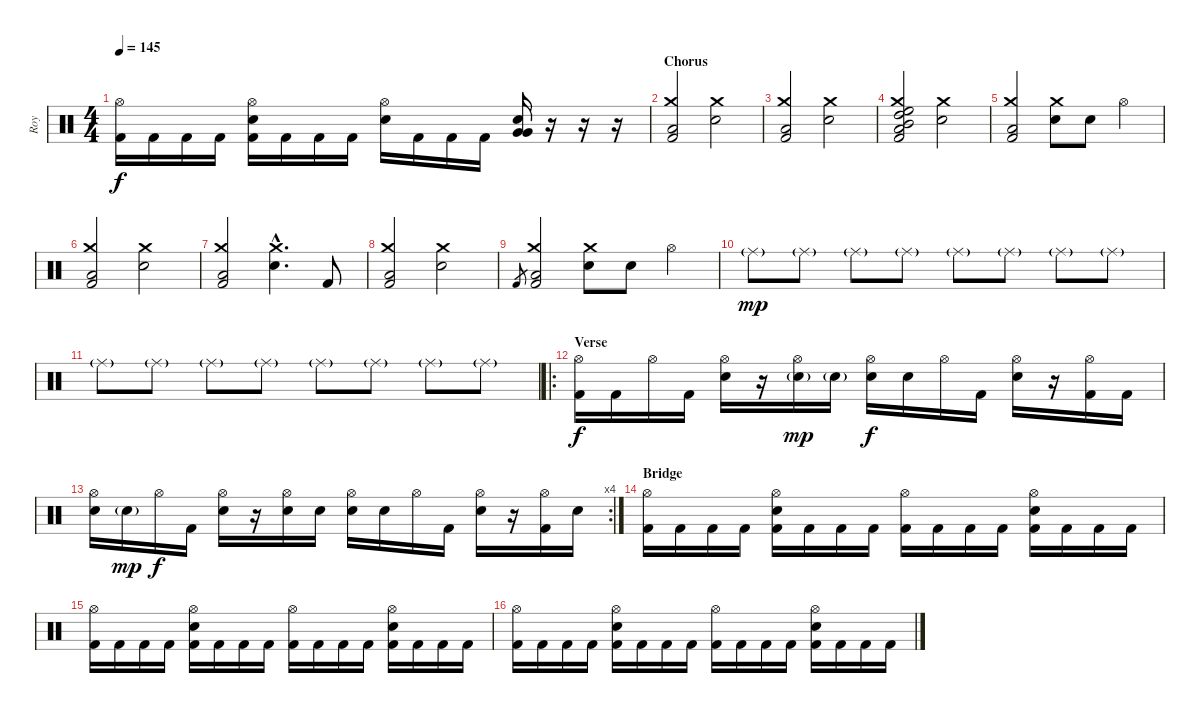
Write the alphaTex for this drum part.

\track ("Roy" "Roy") {instrument percussion}
\staff {score}
\articulation defaults
\ts (4 4)
\tempo 145
\clef neutral
\ks c
("Hi-Hat (open)" "Kick (hit) 2").16{dy f} "Kick (hit) 2".16 "Kick (hit) 2".16 "Kick (hit) 2".16 ("Hi-Hat (open)" "Electric Snare (hit)" "Kick (hit) 2").16 "Kick (hit) 2".16 "Kick (hit) 2".16 "Kick (hit) 2".16 ("Hi-Hat (open)" "Electric Snare (hit)").16 "Kick (hit) 2".16 "Kick (hit) 2".16 "Kick (hit) 2".16 ("Very Low Tom (hit)" "Very Low Tom (hit)" "Electric Snare (hit)").16 r.16 r.16 r.16 |
\section ("" "Chorus")
("Crash medium (hit)" "Kick (hit) 2" "Low Tom (hit)").2 ("Crash medium (hit)" "Electric Snare (hit)").2 |
("Crash medium (hit)" "Low Tom (hit)" "Kick (hit) 2").2 ("Crash medium (hit)" "Electric Snare (hit)").2 |
("Crash medium (hit)" "High Floor Tom (hit)" "Mid Tom (hit)" "Kick (hit) 2" "Low Tom (hit)" "High Tom (hit)").2 ("Crash medium (hit)" "Electric Snare (hit)").2 |
("Crash medium (hit)" "Low Tom (hit)" "Kick (hit) 2").2 ("Crash medium (hit)" "Electric Snare (hit)").8 "Electric Snare (hit)".8 "Hi-Hat (open)".4 |
("Crash medium (hit)" "Kick (hit) 2" "Low Tom (hit)").2 ("Crash medium (hit)" "Electric Snare (hit)").2 |
("Crash medium (hit)" "Low Tom (hit)" "Kick (hit) 2").2 ("Crash medium (hit)"{hac} "Electric Snare (hit)"{hac}).4{d} "Kick (hit) 2".8 |
("Crash medium (hit)" "Low Tom (hit)" "Kick (hit) 2").2 ("Crash medium (hit)" "Electric Snare (hit)").2 |
"Kick (hit) 2".8{gr} ("Crash medium (hit)" "Low Tom (hit)" "Kick (hit) 2").2 ("Crash medium (hit)" "Electric Snare (hit)").8 "Electric Snare (hit)".8 "Hi-Hat (open)".4 |
"Ride (middle)"{g}.8{dy mp} "Ride (middle)"{g}.8 "Ride (middle)"{g}.8 "Ride (middle)"{g}.8 "Ride (middle)"{g}.8 "Ride (middle)"{g}.8 "Ride (middle)"{g}.8 "Ride (middle)"{g}.8 |
"Ride (middle)"{g}.8 "Ride (middle)"{g}.8 "Ride (middle)"{g}.8 "Ride (middle)"{g}.8 "Ride (middle)"{g}.8 "Ride (middle)"{g}.8 "Ride (middle)"{g}.8 "Ride (middle)"{g}.8 |
\ro
\section ("" "Verse")
("Hi-Hat (open)" "Kick (hit) 2").16{dy f} "Kick (hit) 2".16 "Hi-Hat (open)".16 "Kick (hit) 2".16 ("Hi-Hat (open)" "Electric Snare (hit)").16 r.16 ("Hi-Hat (open)" "Electric Snare (hit)"{g}).16{dy mp} "Electric Snare (hit)"{g}.16 ("Hi-Hat (open)" "Electric Snare (hit)").16{dy f} "Electric Snare (hit)".16 "Hi-Hat (open)".16 "Kick (hit) 2".16 ("Hi-Hat (open)" "Electric Snare (hit)").16 r.16 ("Hi-Hat (open)" "Kick (hit) 2").16 "Kick (hit) 2".16 |
\rc 4
("Hi-Hat (open)" "Electric Snare (hit)").16 "Electric Snare (hit)"{g}.16{dy mp} "Hi-Hat (open)".16{dy f} "Kick (hit) 2".16 ("Hi-Hat (open)" "Electric Snare (hit)").16 r.16 ("Hi-Hat (open)" "Electric Snare (hit)").16 "Electric Snare (hit)".16 ("Hi-Hat (open)" "Electric Snare (hit)").16 "Electric Snare (hit)".16 "Hi-Hat (open)".16 "Kick (hit) 2".16 ("Hi-Hat (open)" "Electric Snare (hit)").16 r.16 ("Hi-Hat (open)" "Kick (hit) 2").16 "Electric Snare (hit)".16 |
\section ("" "Bridge")
("Hi-Hat (open)" "Kick (hit) 2").16 "Kick (hit) 2".16 "Kick (hit) 2".16 "Kick (hit) 2".16 ("Hi-Hat (open)" "Electric Snare (hit)" "Kick (hit) 2").16 "Kick (hit) 2".16 "Kick (hit) 2".16 "Kick (hit) 2".16 ("Hi-Hat (open)" "Kick (hit) 2").16 "Kick (hit) 2".16 "Kick (hit) 2".16 "Kick (hit) 2".16 ("Hi-Hat (open)" "Electric Snare (hit)" "Kick (hit) 2").16 "Kick (hit) 2".16 "Kick (hit) 2".16 "Kick (hit) 2".16 |
("Hi-Hat (open)" "Kick (hit) 2").16 "Kick (hit) 2".16 "Kick (hit) 2".16 "Kick (hit) 2".16 ("Hi-Hat (open)" "Electric Snare (hit)" "Kick (hit) 2").16 "Kick (hit) 2".16 "Kick (hit) 2".16 "Kick (hit) 2".16 ("Hi-Hat (open)" "Kick (hit) 2").16 "Kick (hit) 2".16 "Kick (hit) 2".16 "Kick (hit) 2".16 ("Hi-Hat (open)" "Electric Snare (hit)" "Kick (hit) 2").16 "Kick (hit) 2".16 "Kick (hit) 2".16 "Kick (hit) 2".16 |
("Hi-Hat (open)" "Kick (hit) 2").16 "Kick (hit) 2".16 "Kick (hit) 2".16 "Kick (hit) 2".16 ("Hi-Hat (open)" "Electric Snare (hit)" "Kick (hit) 2").16 "Kick (hit) 2".16 "Kick (hit) 2".16 "Kick (hit) 2".16 ("Hi-Hat (open)" "Kick (hit) 2").16 "Kick (hit) 2".16 "Kick (hit) 2".16 "Kick (hit) 2".16 ("Hi-Hat (open)" "Electric Snare (hit)" "Kick (hit) 2").16 "Kick (hit) 2".16 "Kick (hit) 2".16 "Kick (hit) 2".16
